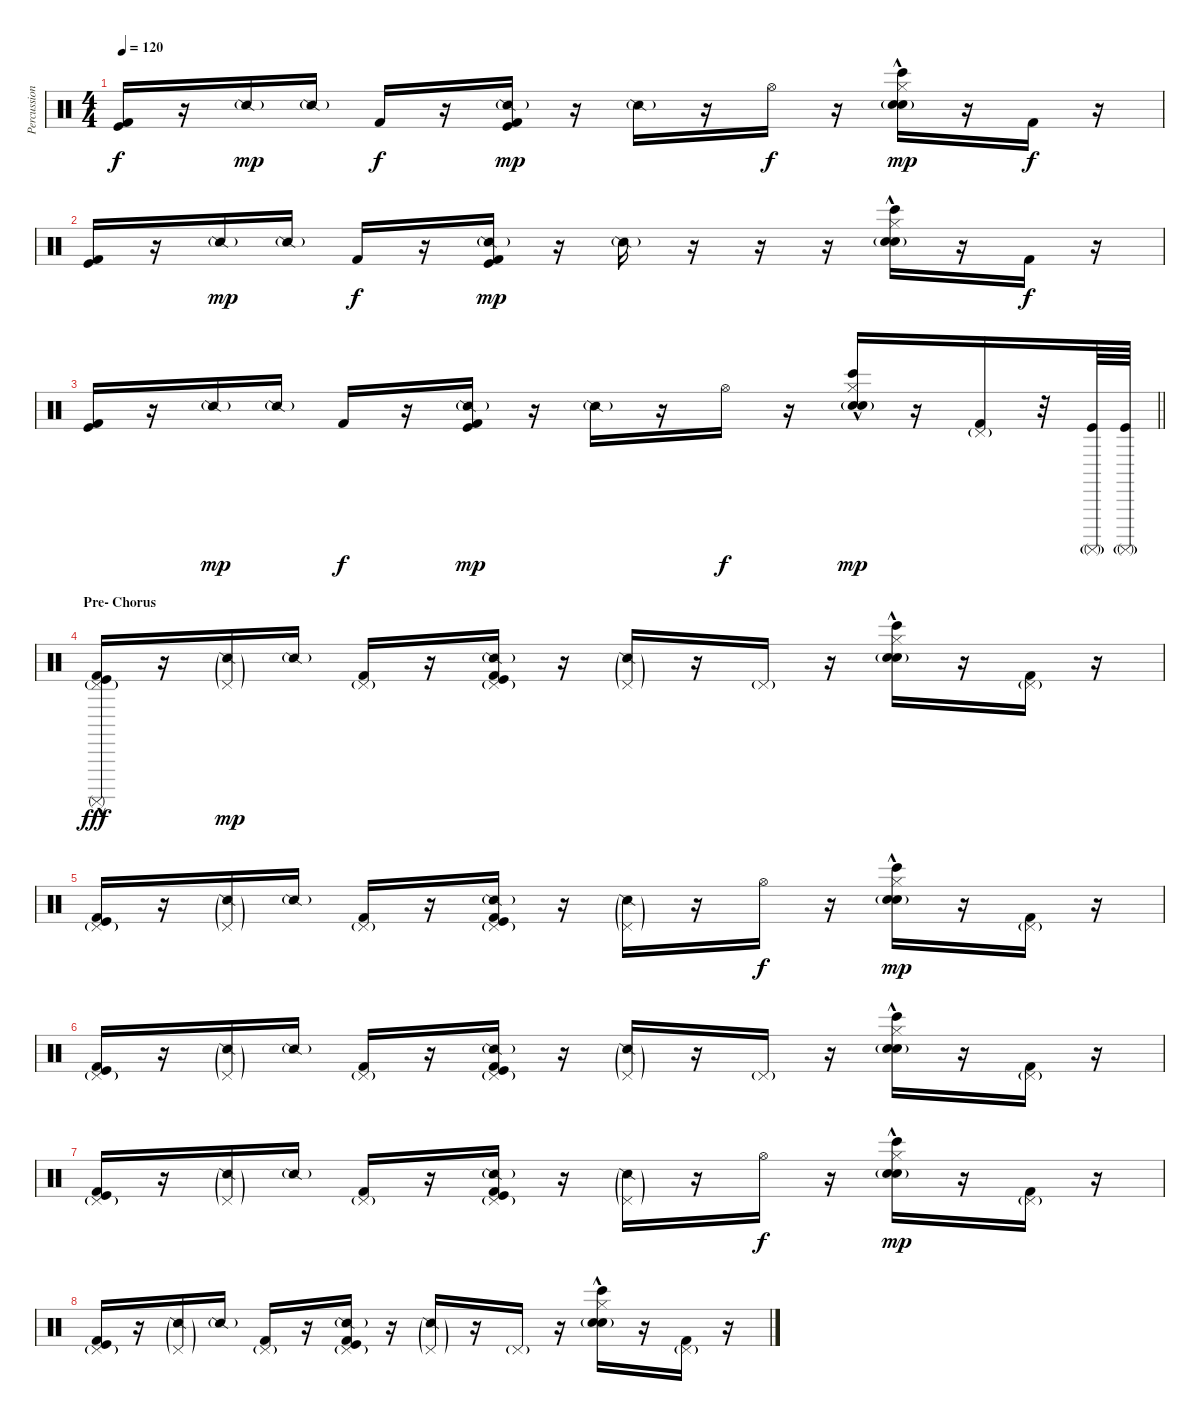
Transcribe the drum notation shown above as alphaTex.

\track ("Percussion" "Percussion") {instrument percussion}
\staff {score}
\articulation defaults
\ts (4 4)
\tempo 120
\clef neutral
\ks c
("Kick (hit) 2" "Kick (hit)").16{dy f} r.16 "Snare (side stick) 2"{g}.16{dy mp} "Snare (side stick) 2"{g}.16 "Kick (hit) 2".16{dy f} r.16 ("Snare (side stick) 2"{g} "Kick (hit) 2" "Kick (hit)").16{dy mp} r.16 "Snare (side stick) 2"{g}.16 r.16 "Hi-Hat (open)".16{dy f} r.16 ("Hi-Hat (closed)"{hac} "Hand Clap (hit)" "Bongo High (hit)" "Electric Snare (hit)"{g}).16{dy mp} r.16 "Kick (hit) 2".16{dy f} r.16 |
("Kick (hit) 2" "Kick (hit)").16 r.16 "Snare (side stick) 2"{g}.16{dy mp} "Snare (side stick) 2"{g}.16 "Kick (hit) 2".16{dy f} r.16 ("Snare (side stick) 2"{g} "Kick (hit) 2" "Kick (hit)").16{dy mp} r.16 "Snare (side stick) 2"{g}.16 r.16 r.16 r.16 ("Hi-Hat (closed)"{hac} "Hand Clap (hit)" "Bongo High (hit)" "Electric Snare (hit)"{g}).16 r.16 "Kick (hit) 2".16{dy f} r.16 |
\barLineRight lightlight
("Kick (hit) 2" "Kick (hit)").16 r.16 "Snare (side stick) 2"{g}.16{dy mp} "Snare (side stick) 2"{g}.16 "Kick (hit) 2".16{dy f} r.16 ("Snare (side stick) 2"{g} "Kick (hit) 2" "Kick (hit)").16{dy mp} r.16 "Snare (side stick) 2"{g}.16 r.16 "Hi-Hat (open)".16{dy f} r.16 ("Hi-Hat (closed)"{hac} "Hand Clap (hit)" "Bongo High (hit)" "Electric Snare (hit)"{g}).16{dy mp} r.16 ("Pedal Hi-Hat (hit)"{g} "Kick (hit) 2").16 r.32 ("Surdo (mute)"{g} "Kick (hit)").64 ("Surdo (mute)"{g} "Kick (hit)").64 |
\section ("" "Pre- Chorus")
("Pedal Hi-Hat (hit)"{g} "Surdo (mute)" "Kick (hit) 2"{hac} "Kick (hit)").16{dy fff} r.16 ("Pedal Hi-Hat (hit)"{g} "Snare (side stick) 2"{g}).16{dy mp} "Snare (side stick) 2"{g}.16 ("Pedal Hi-Hat (hit)"{g} "Kick (hit) 2").16 r.16 ("Pedal Hi-Hat (hit)"{g} "Snare (side stick) 2"{g} "Kick (hit) 2" "Kick (hit)").16 r.16 ("Pedal Hi-Hat (hit)"{g} "Snare (side stick) 2"{g}).16 r.16 "Pedal Hi-Hat (hit)"{g}.16 r.16 ("Hi-Hat (closed)"{hac} "Hand Clap (hit)" "Bongo High (hit)" "Electric Snare (hit)"{g}).16 r.16 ("Pedal Hi-Hat (hit)"{g} "Kick (hit) 2").16 r.16 |
("Pedal Hi-Hat (hit)"{g} "Kick (hit) 2" "Kick (hit)").16 r.16 ("Pedal Hi-Hat (hit)"{g} "Snare (side stick) 2"{g}).16 "Snare (side stick) 2"{g}.16 ("Pedal Hi-Hat (hit)"{g} "Kick (hit) 2").16 r.16 ("Pedal Hi-Hat (hit)"{g} "Snare (side stick) 2"{g} "Kick (hit) 2" "Kick (hit)").16 r.16 ("Pedal Hi-Hat (hit)"{g} "Snare (side stick) 2"{g}).16 r.16 "Hi-Hat (open)".16{dy f} r.16 ("Hi-Hat (closed)"{hac} "Hand Clap (hit)" "Bongo High (hit)" "Electric Snare (hit)"{g}).16{dy mp} r.16 ("Pedal Hi-Hat (hit)"{g} "Kick (hit) 2").16 r.16 |
("Pedal Hi-Hat (hit)"{g} "Kick (hit) 2" "Kick (hit)").16 r.16 ("Pedal Hi-Hat (hit)"{g} "Snare (side stick) 2"{g}).16 "Snare (side stick) 2"{g}.16 ("Pedal Hi-Hat (hit)"{g} "Kick (hit) 2").16 r.16 ("Pedal Hi-Hat (hit)"{g} "Snare (side stick) 2"{g} "Kick (hit) 2" "Kick (hit)").16 r.16 ("Pedal Hi-Hat (hit)"{g} "Snare (side stick) 2"{g}).16 r.16 "Pedal Hi-Hat (hit)"{g}.16 r.16 ("Hi-Hat (closed)"{hac} "Hand Clap (hit)" "Bongo High (hit)" "Electric Snare (hit)"{g}).16 r.16 ("Pedal Hi-Hat (hit)"{g} "Kick (hit) 2").16 r.16 |
("Pedal Hi-Hat (hit)"{g} "Kick (hit) 2" "Kick (hit)").16 r.16 ("Pedal Hi-Hat (hit)"{g} "Snare (side stick) 2"{g}).16 "Snare (side stick) 2"{g}.16 ("Pedal Hi-Hat (hit)"{g} "Kick (hit) 2").16 r.16 ("Pedal Hi-Hat (hit)"{g} "Snare (side stick) 2"{g} "Kick (hit) 2" "Kick (hit)").16 r.16 ("Pedal Hi-Hat (hit)"{g} "Snare (side stick) 2"{g}).16 r.16 "Hi-Hat (open)".16{dy f} r.16 ("Hi-Hat (closed)"{hac} "Hand Clap (hit)" "Bongo High (hit)" "Electric Snare (hit)"{g}).16{dy mp} r.16 ("Pedal Hi-Hat (hit)"{g} "Kick (hit) 2").16 r.16 |
("Pedal Hi-Hat (hit)"{g} "Kick (hit) 2" "Kick (hit)").16 r.16 ("Pedal Hi-Hat (hit)"{g} "Snare (side stick) 2"{g}).16 "Snare (side stick) 2"{g}.16 ("Pedal Hi-Hat (hit)"{g} "Kick (hit) 2").16 r.16 ("Pedal Hi-Hat (hit)"{g} "Snare (side stick) 2"{g} "Kick (hit) 2" "Kick (hit)").16 r.16 ("Pedal Hi-Hat (hit)"{g} "Snare (side stick) 2"{g}).16 r.16 "Pedal Hi-Hat (hit)"{g}.16 r.16 ("Hi-Hat (closed)"{hac} "Hand Clap (hit)" "Bongo High (hit)" "Electric Snare (hit)"{g}).16 r.16 ("Pedal Hi-Hat (hit)"{g} "Kick (hit) 2").16 r.16
